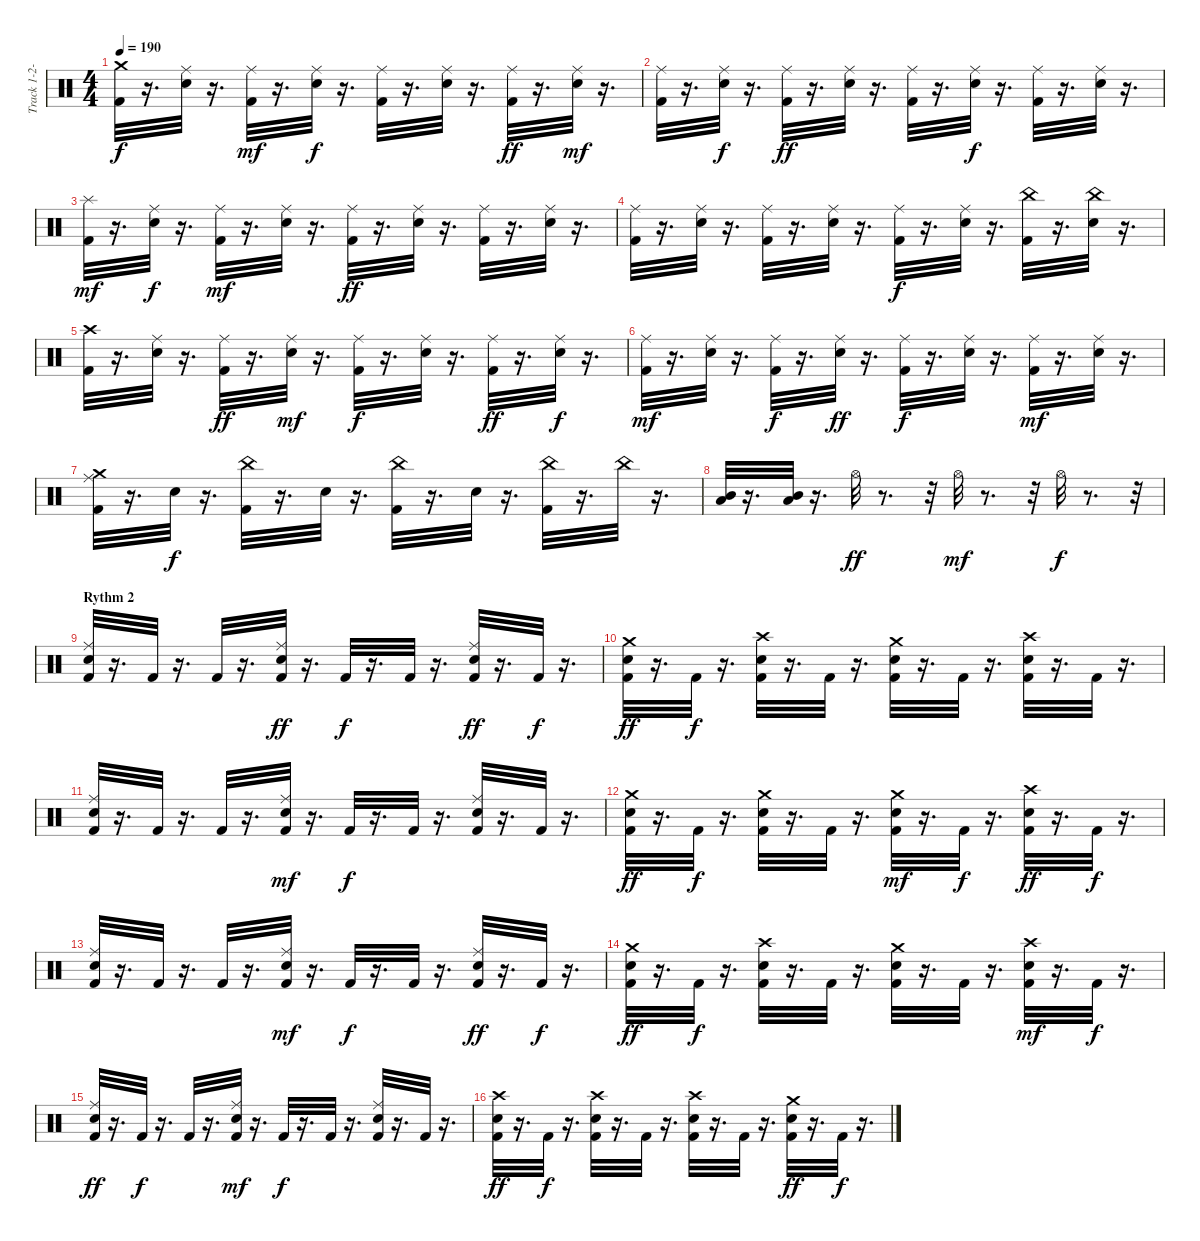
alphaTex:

\track ("Track 1-2-3-4-5-6-7-8" "Track 1-2-") {instrument percussion}
\staff {score}
\articulation defaults
\ts (4 4)
\tempo 190
\clef neutral
\ks c
("Crash medium (hit)" "Kick (hit) 2").32{dy f} r.16{d} ("Ride (middle)" "Electric Snare (hit)").32 r.16{d} ("Ride (middle)" "Kick (hit) 2").32{dy mf} r.16{d} ("Ride (middle)" "Electric Snare (hit)").32{dy f} r.16{d} ("Ride (middle)" "Kick (hit) 2").32 r.16{d} ("Ride (middle)" "Electric Snare (hit)").32 r.16{d} ("Ride (middle)" "Kick (hit) 2").32{dy ff} r.16{d} ("Ride (middle)" "Electric Snare (hit)").32{dy mf} r.16{d} |
("Ride (middle)" "Kick (hit) 2").32 r.16{d} ("Ride (middle)" "Electric Snare (hit)").32{dy f} r.16{d} ("Ride (middle)" "Kick (hit) 2").32{dy ff} r.16{d} ("Ride (middle)" "Electric Snare (hit)").32 r.16{d} ("Ride (middle)" "Kick (hit) 2").32 r.16{d} ("Ride (middle)" "Electric Snare (hit)").32{dy f} r.16{d} ("Ride (middle)" "Kick (hit) 2").32 r.16{d} ("Ride (middle)" "Electric Snare (hit)").32 r.16{d} |
("Splash (hit)" "Kick (hit) 2").32{dy mf} r.16{d} ("Ride (middle)" "Electric Snare (hit)").32{dy f} r.16{d} ("Ride (middle)" "Kick (hit) 2").32{dy mf} r.16{d} ("Ride (middle)" "Electric Snare (hit)").32 r.16{d} ("Ride (middle)" "Kick (hit) 2").32{dy ff} r.16{d} ("Ride (middle)" "Electric Snare (hit)").32 r.16{d} ("Ride (middle)" "Kick (hit) 2").32 r.16{d} ("Ride (middle)" "Electric Snare (hit)").32 r.16{d} |
("Ride (middle)" "Kick (hit) 2").32 r.16{d} ("Ride (middle)" "Electric Snare (hit)").32 r.16{d} ("Ride (middle)" "Kick (hit) 2").32 r.16{d} ("Ride (middle)" "Electric Snare (hit)").32 r.16{d} ("Ride (middle)" "Kick (hit) 2").32{dy f} r.16{d} ("Ride (middle)" "Electric Snare (hit)").32 r.16{d} ("China (hit)" "Kick (hit) 2").32 r.16{d} ("China (hit)" "Electric Snare (hit)").32 r.16{d} |
("Crash high (hit)" "Kick (hit) 2").32 r.16{d} ("Ride (middle)" "Electric Snare (hit)").32 r.16{d} ("Ride (middle)" "Kick (hit) 2").32{dy ff} r.16{d} ("Ride (middle)" "Electric Snare (hit)").32{dy mf} r.16{d} ("Ride (middle)" "Kick (hit) 2").32{dy f} r.16{d} ("Ride (middle)" "Electric Snare (hit)").32 r.16{d} ("Ride (middle)" "Kick (hit) 2").32{dy ff} r.16{d} ("Ride (middle)" "Electric Snare (hit)").32{dy f} r.16{d} |
("Ride (middle)" "Kick (hit) 2").32{dy mf} r.16{d} ("Ride (middle)" "Electric Snare (hit)").32 r.16{d} ("Ride (middle)" "Kick (hit) 2").32{dy f} r.16{d} ("Ride (middle)" "Electric Snare (hit)").32{dy ff} r.16{d} ("Ride (middle)" "Kick (hit) 2").32{dy f} r.16{d} ("Ride (middle)" "Electric Snare (hit)").32 r.16{d} ("Ride (middle)" "Kick (hit) 2").32{dy mf} r.16{d} ("Ride (middle)" "Electric Snare (hit)").32 r.16{d} |
("Crash medium (hit)" "Ride (middle)" "Kick (hit) 2").32 r.16{d} "Electric Snare (hit)".32{dy f} r.16{d} ("China (hit)" "Kick (hit) 2").32 r.16{d} "Electric Snare (hit)".32 r.16{d} ("China (hit)" "Kick (hit) 2").32 r.16{d} "Electric Snare (hit)".32 r.16{d} ("China (hit)" "Kick (hit) 2").32 r.16{d} "China (hit)".32 r.16{d} |
("Mid Tom (hit)" "Low Tom (hit)").32 r.16{d} ("Mid Tom (hit)" "Low Tom (hit)").32 r.16{d} "Hi-Hat (open)".32{dy ff} r.8{d} r.32 "Hi-Hat (open)".32{dy mf} r.8{d} r.32 "Hi-Hat (open)".32{dy f} r.8{d} r.32 |
\section ("" "Rythm 2")
("Ride (middle)" "Kick (hit) 2" "Electric Snare (hit)").32 r.16{d} "Kick (hit) 2".32 r.16{d} "Kick (hit) 2".32 r.16{d} ("Ride (middle)" "Kick (hit) 2" "Electric Snare (hit)").32{dy ff} r.16{d} "Kick (hit) 2".32{dy f} r.16{d} "Kick (hit) 2".32 r.16{d} ("Ride (middle)" "Kick (hit) 2" "Electric Snare (hit)").32{dy ff} r.16{d} "Kick (hit) 2".32{dy f} r.16{d} |
("Crash medium (hit)" "Kick (hit) 2" "Electric Snare (hit)").32{dy ff} r.16{d} "Kick (hit) 2".32{dy f} r.16{d} ("Crash high (hit)" "Kick (hit) 2" "Electric Snare (hit)").32 r.16{d} "Kick (hit) 2".32 r.16{d} ("Crash medium (hit)" "Kick (hit) 2" "Electric Snare (hit)").32 r.16{d} "Kick (hit) 2".32 r.16{d} ("Crash high (hit)" "Kick (hit) 2" "Electric Snare (hit)").32 r.16{d} "Kick (hit) 2".32 r.16{d} |
("Ride (middle)" "Kick (hit) 2" "Electric Snare (hit)").32 r.16{d} "Kick (hit) 2".32 r.16{d} "Kick (hit) 2".32 r.16{d} ("Ride (middle)" "Kick (hit) 2" "Electric Snare (hit)").32{dy mf} r.16{d} "Kick (hit) 2".32{dy f} r.16{d} "Kick (hit) 2".32 r.16{d} ("Ride (middle)" "Kick (hit) 2" "Electric Snare (hit)").32 r.16{d} "Kick (hit) 2".32 r.16{d} |
("Crash medium (hit)" "Kick (hit) 2" "Electric Snare (hit)").32{dy ff} r.16{d} "Kick (hit) 2".32{dy f} r.16{d} ("Crash medium (hit)" "Kick (hit) 2" "Electric Snare (hit)").32 r.16{d} "Kick (hit) 2".32 r.16{d} ("Crash medium (hit)" "Kick (hit) 2" "Electric Snare (hit)").32{dy mf} r.16{d} "Kick (hit) 2".32{dy f} r.16{d} ("Crash high (hit)" "Kick (hit) 2" "Electric Snare (hit)").32{dy ff} r.16{d} "Kick (hit) 2".32{dy f} r.16{d} |
("Ride (middle)" "Kick (hit) 2" "Electric Snare (hit)").32 r.16{d} "Kick (hit) 2".32 r.16{d} "Kick (hit) 2".32 r.16{d} ("Ride (middle)" "Kick (hit) 2" "Electric Snare (hit)").32{dy mf} r.16{d} "Kick (hit) 2".32{dy f} r.16{d} "Kick (hit) 2".32 r.16{d} ("Ride (middle)" "Kick (hit) 2" "Electric Snare (hit)").32{dy ff} r.16{d} "Kick (hit) 2".32{dy f} r.16{d} |
("Crash medium (hit)" "Kick (hit) 2" "Electric Snare (hit)").32{dy ff} r.16{d} "Kick (hit) 2".32{dy f} r.16{d} ("Crash high (hit)" "Kick (hit) 2" "Electric Snare (hit)").32 r.16{d} "Kick (hit) 2".32 r.16{d} ("Crash medium (hit)" "Kick (hit) 2" "Electric Snare (hit)").32 r.16{d} "Kick (hit) 2".32 r.16{d} ("Crash high (hit)" "Kick (hit) 2" "Electric Snare (hit)").32{dy mf} r.16{d} "Kick (hit) 2".32{dy f} r.16{d} |
("Ride (middle)" "Kick (hit) 2" "Electric Snare (hit)").32{dy ff} r.16{d} "Kick (hit) 2".32{dy f} r.16{d} "Kick (hit) 2".32 r.16{d} ("Ride (middle)" "Kick (hit) 2" "Electric Snare (hit)").32{dy mf} r.16{d} "Kick (hit) 2".32{dy f} r.16{d} "Kick (hit) 2".32 r.16{d} ("Ride (middle)" "Kick (hit) 2" "Electric Snare (hit)").32 r.16{d} "Kick (hit) 2".32 r.16{d} |
("Crash high (hit)" "Kick (hit) 2" "Electric Snare (hit)").32{dy ff} r.16{d} "Kick (hit) 2".32{dy f} r.16{d} ("Crash high (hit)" "Kick (hit) 2" "Electric Snare (hit)").32 r.16{d} "Kick (hit) 2".32 r.16{d} ("Crash high (hit)" "Kick (hit) 2" "Electric Snare (hit)").32 r.16{d} "Kick (hit) 2".32 r.16{d} ("Crash medium (hit)" "Kick (hit) 2" "Electric Snare (hit)").32{dy ff} r.16{d} "Kick (hit) 2".32{dy f} r.16{d}
